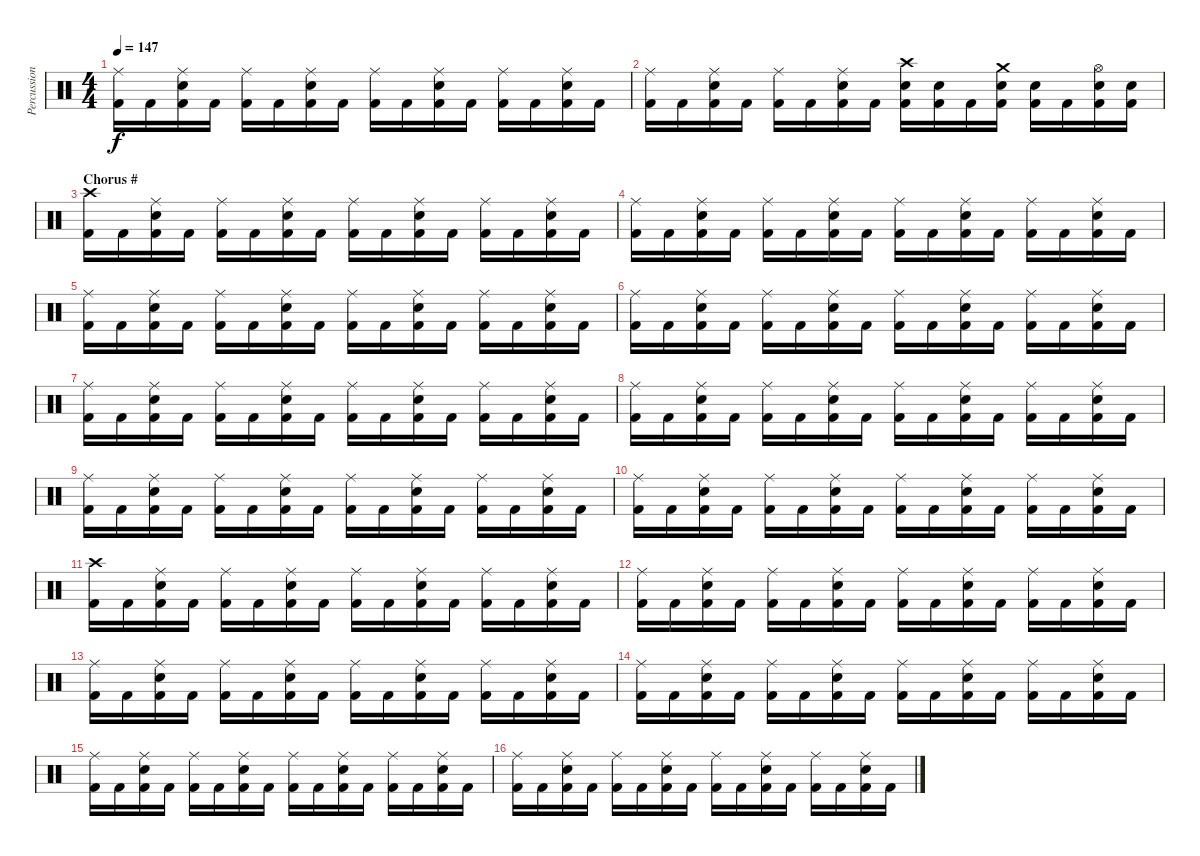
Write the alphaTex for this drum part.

\track ("Percussion" "Percussion") {instrument percussion}
\staff {score}
\articulation defaults
\ts (4 4)
\tempo 147
\clef neutral
\ks c
("Kick (hit) 2" "Ride (middle)").16{dy f} "Kick (hit) 2".16 ("Kick (hit) 2" "Snare (hit) 2" "Ride (middle)").16 "Kick (hit) 2".16 ("Kick (hit) 2" "Ride (middle)").16 "Kick (hit) 2".16 ("Kick (hit) 2" "Snare (hit) 2" "Ride (middle)").16 "Kick (hit) 2".16 ("Kick (hit) 2" "Ride (middle)").16 "Kick (hit) 2".16 ("Kick (hit) 2" "Snare (hit) 2" "Ride (middle)").16 "Kick (hit) 2".16 ("Kick (hit) 2" "Ride (middle)").16 "Kick (hit) 2".16 ("Kick (hit) 2" "Snare (hit) 2" "Ride (middle)").16 "Kick (hit) 2".16 |
("Kick (hit) 2" "Ride (middle)").16 "Kick (hit) 2".16 ("Kick (hit) 2" "Snare (hit) 2" "Ride (middle)").16 "Kick (hit) 2".16 ("Kick (hit) 2" "Ride (middle)").16 "Kick (hit) 2".16 ("Kick (hit) 2" "Snare (hit) 2" "Ride (middle)").16 "Kick (hit) 2".16 ("Kick (hit) 2" "Snare (hit) 2" "Crash high (hit)").16 ("Kick (hit) 2" "Snare (hit) 2").16 "Kick (hit) 2".16 ("Kick (hit) 2" "Snare (hit) 2" "Crash medium (hit)").16 ("Kick (hit) 2" "Snare (hit) 2").16 "Kick (hit) 2".16 ("Kick (hit) 2" "Snare (hit) 2" "Hi-Hat (open)").16 ("Kick (hit) 2" "Snare (hit) 2").16 |
\section ("" "Chorus #")
("Kick (hit) 2" "Crash high (hit)").16 "Kick (hit) 2".16 ("Kick (hit) 2" "Snare (hit) 2" "Ride (middle)").16 "Kick (hit) 2".16 ("Kick (hit) 2" "Ride (middle)").16 "Kick (hit) 2".16 ("Kick (hit) 2" "Snare (hit) 2" "Ride (middle)").16 "Kick (hit) 2".16 ("Kick (hit) 2" "Ride (middle)").16 "Kick (hit) 2".16 ("Kick (hit) 2" "Snare (hit) 2" "Ride (middle)").16 "Kick (hit) 2".16 ("Kick (hit) 2" "Ride (middle)").16 "Kick (hit) 2".16 ("Kick (hit) 2" "Snare (hit) 2" "Ride (middle)").16 "Kick (hit) 2".16 |
("Kick (hit) 2" "Ride (middle)").16 "Kick (hit) 2".16 ("Kick (hit) 2" "Snare (hit) 2" "Ride (middle)").16 "Kick (hit) 2".16 ("Kick (hit) 2" "Ride (middle)").16 "Kick (hit) 2".16 ("Kick (hit) 2" "Snare (hit) 2" "Ride (middle)").16 "Kick (hit) 2".16 ("Kick (hit) 2" "Ride (middle)").16 "Kick (hit) 2".16 ("Kick (hit) 2" "Snare (hit) 2" "Ride (middle)").16 "Kick (hit) 2".16 ("Kick (hit) 2" "Ride (middle)").16 "Kick (hit) 2".16 ("Kick (hit) 2" "Snare (hit) 2" "Ride (middle)").16 "Kick (hit) 2".16 |
("Kick (hit) 2" "Ride (middle)").16 "Kick (hit) 2".16 ("Kick (hit) 2" "Snare (hit) 2" "Ride (middle)").16 "Kick (hit) 2".16 ("Kick (hit) 2" "Ride (middle)").16 "Kick (hit) 2".16 ("Kick (hit) 2" "Snare (hit) 2" "Ride (middle)").16 "Kick (hit) 2".16 ("Kick (hit) 2" "Ride (middle)").16 "Kick (hit) 2".16 ("Kick (hit) 2" "Snare (hit) 2" "Ride (middle)").16 "Kick (hit) 2".16 ("Kick (hit) 2" "Ride (middle)").16 "Kick (hit) 2".16 ("Kick (hit) 2" "Snare (hit) 2" "Ride (middle)").16 "Kick (hit) 2".16 |
("Kick (hit) 2" "Ride (middle)").16 "Kick (hit) 2".16 ("Kick (hit) 2" "Snare (hit) 2" "Ride (middle)").16 "Kick (hit) 2".16 ("Kick (hit) 2" "Ride (middle)").16 "Kick (hit) 2".16 ("Kick (hit) 2" "Snare (hit) 2" "Ride (middle)").16 "Kick (hit) 2".16 ("Kick (hit) 2" "Ride (middle)").16 "Kick (hit) 2".16 ("Kick (hit) 2" "Snare (hit) 2" "Ride (middle)").16 "Kick (hit) 2".16 ("Kick (hit) 2" "Ride (middle)").16 "Kick (hit) 2".16 ("Kick (hit) 2" "Snare (hit) 2" "Ride (middle)").16 "Kick (hit) 2".16 |
("Kick (hit) 2" "Ride (middle)").16 "Kick (hit) 2".16 ("Kick (hit) 2" "Snare (hit) 2" "Ride (middle)").16 "Kick (hit) 2".16 ("Kick (hit) 2" "Ride (middle)").16 "Kick (hit) 2".16 ("Kick (hit) 2" "Snare (hit) 2" "Ride (middle)").16 "Kick (hit) 2".16 ("Kick (hit) 2" "Ride (middle)").16 "Kick (hit) 2".16 ("Kick (hit) 2" "Snare (hit) 2" "Ride (middle)").16 "Kick (hit) 2".16 ("Kick (hit) 2" "Ride (middle)").16 "Kick (hit) 2".16 ("Kick (hit) 2" "Snare (hit) 2" "Ride (middle)").16 "Kick (hit) 2".16 |
("Kick (hit) 2" "Ride (middle)").16 "Kick (hit) 2".16 ("Kick (hit) 2" "Snare (hit) 2" "Ride (middle)").16 "Kick (hit) 2".16 ("Kick (hit) 2" "Ride (middle)").16 "Kick (hit) 2".16 ("Kick (hit) 2" "Snare (hit) 2" "Ride (middle)").16 "Kick (hit) 2".16 ("Kick (hit) 2" "Ride (middle)").16 "Kick (hit) 2".16 ("Kick (hit) 2" "Snare (hit) 2" "Ride (middle)").16 "Kick (hit) 2".16 ("Kick (hit) 2" "Ride (middle)").16 "Kick (hit) 2".16 ("Kick (hit) 2" "Snare (hit) 2" "Ride (middle)").16 "Kick (hit) 2".16 |
("Kick (hit) 2" "Ride (middle)").16 "Kick (hit) 2".16 ("Kick (hit) 2" "Snare (hit) 2" "Ride (middle)").16 "Kick (hit) 2".16 ("Kick (hit) 2" "Ride (middle)").16 "Kick (hit) 2".16 ("Kick (hit) 2" "Snare (hit) 2" "Ride (middle)").16 "Kick (hit) 2".16 ("Kick (hit) 2" "Ride (middle)").16 "Kick (hit) 2".16 ("Kick (hit) 2" "Snare (hit) 2" "Ride (middle)").16 "Kick (hit) 2".16 ("Kick (hit) 2" "Ride (middle)").16 "Kick (hit) 2".16 ("Kick (hit) 2" "Snare (hit) 2" "Ride (middle)").16 "Kick (hit) 2".16 |
("Kick (hit) 2" "Ride (middle)").16 "Kick (hit) 2".16 ("Kick (hit) 2" "Snare (hit) 2" "Ride (middle)").16 "Kick (hit) 2".16 ("Kick (hit) 2" "Ride (middle)").16 "Kick (hit) 2".16 ("Kick (hit) 2" "Snare (hit) 2" "Ride (middle)").16 "Kick (hit) 2".16 ("Kick (hit) 2" "Ride (middle)").16 "Kick (hit) 2".16 ("Kick (hit) 2" "Snare (hit) 2" "Ride (middle)").16 "Kick (hit) 2".16 ("Kick (hit) 2" "Ride (middle)").16 "Kick (hit) 2".16 ("Kick (hit) 2" "Snare (hit) 2" "Ride (middle)").16 "Kick (hit) 2".16 |
("Kick (hit) 2" "Crash high (hit)").16 "Kick (hit) 2".16 ("Kick (hit) 2" "Snare (hit) 2" "Ride (middle)").16 "Kick (hit) 2".16 ("Kick (hit) 2" "Ride (middle)").16 "Kick (hit) 2".16 ("Kick (hit) 2" "Snare (hit) 2" "Ride (middle)").16 "Kick (hit) 2".16 ("Kick (hit) 2" "Ride (middle)").16 "Kick (hit) 2".16 ("Kick (hit) 2" "Snare (hit) 2" "Ride (middle)").16 "Kick (hit) 2".16 ("Kick (hit) 2" "Ride (middle)").16 "Kick (hit) 2".16 ("Kick (hit) 2" "Snare (hit) 2" "Ride (middle)").16 "Kick (hit) 2".16 |
("Kick (hit) 2" "Ride (middle)").16 "Kick (hit) 2".16 ("Kick (hit) 2" "Snare (hit) 2" "Ride (middle)").16 "Kick (hit) 2".16 ("Kick (hit) 2" "Ride (middle)").16 "Kick (hit) 2".16 ("Kick (hit) 2" "Snare (hit) 2" "Ride (middle)").16 "Kick (hit) 2".16 ("Kick (hit) 2" "Ride (middle)").16 "Kick (hit) 2".16 ("Kick (hit) 2" "Snare (hit) 2" "Ride (middle)").16 "Kick (hit) 2".16 ("Kick (hit) 2" "Ride (middle)").16 "Kick (hit) 2".16 ("Kick (hit) 2" "Snare (hit) 2" "Ride (middle)").16 "Kick (hit) 2".16 |
("Kick (hit) 2" "Ride (middle)").16 "Kick (hit) 2".16 ("Kick (hit) 2" "Snare (hit) 2" "Ride (middle)").16 "Kick (hit) 2".16 ("Kick (hit) 2" "Ride (middle)").16 "Kick (hit) 2".16 ("Kick (hit) 2" "Snare (hit) 2" "Ride (middle)").16 "Kick (hit) 2".16 ("Kick (hit) 2" "Ride (middle)").16 "Kick (hit) 2".16 ("Kick (hit) 2" "Snare (hit) 2" "Ride (middle)").16 "Kick (hit) 2".16 ("Kick (hit) 2" "Ride (middle)").16 "Kick (hit) 2".16 ("Kick (hit) 2" "Snare (hit) 2" "Ride (middle)").16 "Kick (hit) 2".16 |
("Kick (hit) 2" "Ride (middle)").16 "Kick (hit) 2".16 ("Kick (hit) 2" "Snare (hit) 2" "Ride (middle)").16 "Kick (hit) 2".16 ("Kick (hit) 2" "Ride (middle)").16 "Kick (hit) 2".16 ("Kick (hit) 2" "Snare (hit) 2" "Ride (middle)").16 "Kick (hit) 2".16 ("Kick (hit) 2" "Ride (middle)").16 "Kick (hit) 2".16 ("Kick (hit) 2" "Snare (hit) 2" "Ride (middle)").16 "Kick (hit) 2".16 ("Kick (hit) 2" "Ride (middle)").16 "Kick (hit) 2".16 ("Kick (hit) 2" "Snare (hit) 2" "Ride (middle)").16 "Kick (hit) 2".16 |
("Kick (hit) 2" "Ride (middle)").16 "Kick (hit) 2".16 ("Kick (hit) 2" "Snare (hit) 2" "Ride (middle)").16 "Kick (hit) 2".16 ("Kick (hit) 2" "Ride (middle)").16 "Kick (hit) 2".16 ("Kick (hit) 2" "Snare (hit) 2" "Ride (middle)").16 "Kick (hit) 2".16 ("Kick (hit) 2" "Ride (middle)").16 "Kick (hit) 2".16 ("Kick (hit) 2" "Snare (hit) 2" "Ride (middle)").16 "Kick (hit) 2".16 ("Kick (hit) 2" "Ride (middle)").16 "Kick (hit) 2".16 ("Kick (hit) 2" "Snare (hit) 2" "Ride (middle)").16 "Kick (hit) 2".16 |
("Kick (hit) 2" "Ride (middle)").16 "Kick (hit) 2".16 ("Kick (hit) 2" "Snare (hit) 2" "Ride (middle)").16 "Kick (hit) 2".16 ("Kick (hit) 2" "Ride (middle)").16 "Kick (hit) 2".16 ("Kick (hit) 2" "Snare (hit) 2" "Ride (middle)").16 "Kick (hit) 2".16 ("Kick (hit) 2" "Ride (middle)").16 "Kick (hit) 2".16 ("Kick (hit) 2" "Snare (hit) 2" "Ride (middle)").16 "Kick (hit) 2".16 ("Kick (hit) 2" "Ride (middle)").16 "Kick (hit) 2".16 ("Kick (hit) 2" "Snare (hit) 2" "Ride (middle)").16 "Kick (hit) 2".16
